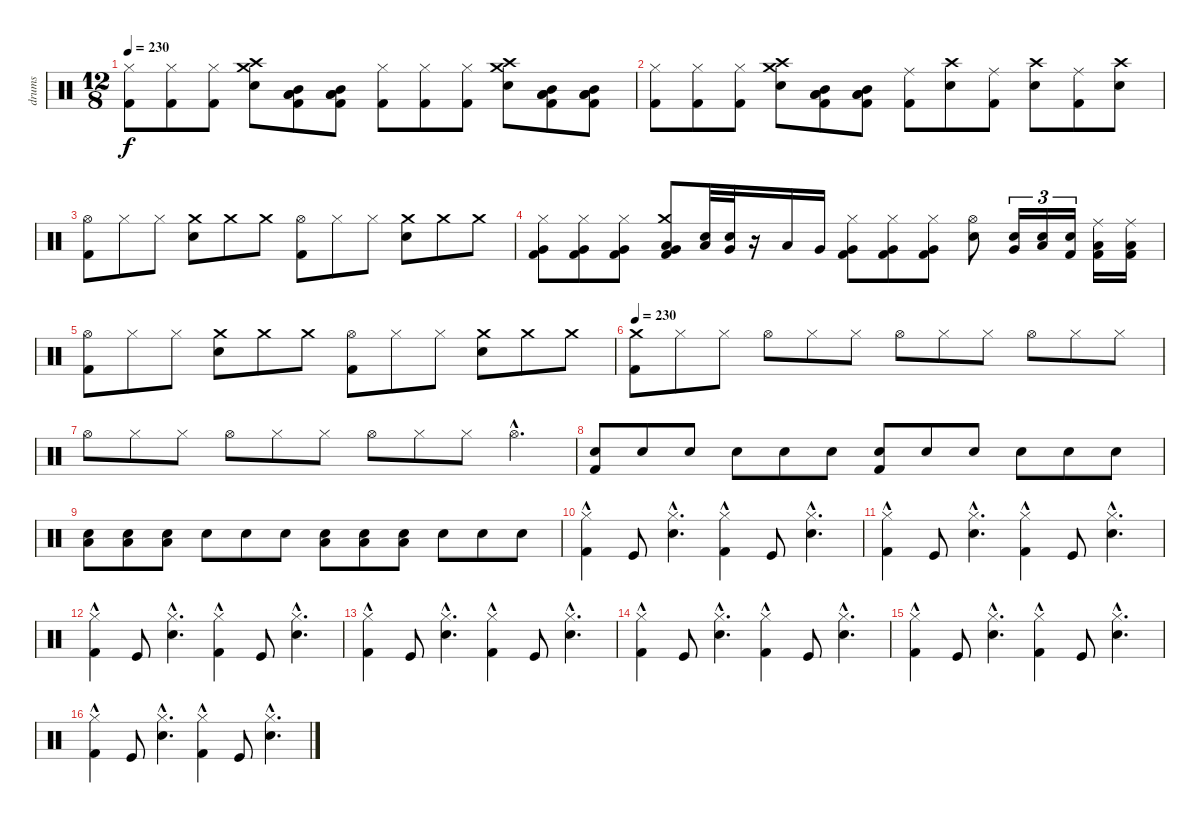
\track ("drums" "drums") {instrument percussion}
\staff {score}
\articulation defaults
\ts (12 8)
\tempo 230
\clef neutral
\ks c
("Hi-Hat (closed)" "Kick (hit) 2").8{dy f} ("Hi-Hat (closed)" "Kick (hit) 2").8 ("Hi-Hat (closed)" "Kick (hit) 2").8 ("Snare (hit) 2" "Crash high (hit)" "Crash medium (hit)").8 ("Kick (hit) 2" "Low Tom (hit)" "Low Floor Tom (hit)" "Mid Tom (hit)").8 ("Kick (hit) 2" "Mid Tom (hit)" "Low Floor Tom (hit)" "Low Tom (hit)").8 ("Hi-Hat (closed)" "Kick (hit) 2").8 ("Hi-Hat (closed)" "Kick (hit) 2").8 ("Hi-Hat (closed)" "Kick (hit) 2").8 ("Crash medium (hit)" "Crash high (hit)" "Snare (hit) 2").8 ("Kick (hit) 2" "Mid Tom (hit)" "Low Tom (hit)" "Low Floor Tom (hit)").8 ("Kick (hit) 2" "Mid Tom (hit)" "Low Tom (hit)" "Low Floor Tom (hit)").8 |
("Hi-Hat (closed)" "Kick (hit) 2").8 ("Hi-Hat (closed)" "Kick (hit) 2").8 ("Hi-Hat (closed)" "Kick (hit) 2").8 ("Snare (hit) 2" "Crash high (hit)" "Crash medium (hit)").8 ("Kick (hit) 2" "Low Floor Tom (hit)" "Mid Tom (hit)" "Low Tom (hit)").8 ("Kick (hit) 2" "Mid Tom (hit)" "Low Tom (hit)" "Low Floor Tom (hit)").8 ("Ride (middle)" "Kick (hit) 2").8 ("Crash high (hit)" "Snare (hit) 2").8 ("Ride (middle)" "Kick (hit) 2").8 ("Crash high (hit)" "Snare (hit) 2").8 ("Ride (middle)" "Kick (hit) 2").8 ("Crash high (hit)" "Snare (hit) 2").8 |
("Hi-Hat (open)" "Kick (hit) 2").8 "Hi-Hat (closed)".8 "Hi-Hat (closed)".8 ("Snare (hit) 2" "Crash medium (hit)").8 "Crash medium (hit)".8 "Crash medium (hit)".8 ("Hi-Hat (open)" "Kick (hit) 2").8 "Hi-Hat (closed)".8 "Hi-Hat (closed)".8 ("Snare (hit) 2" "Crash medium (hit)").8 "Crash medium (hit)".8 "Crash medium (hit)".8 |
("Hi-Hat (closed)" "Kick (hit) 2" "Very Low Tom (hit)").8 ("Hi-Hat (closed)" "Kick (hit) 2" "Very Low Tom (hit)").8 ("Hi-Hat (closed)" "Kick (hit) 2" "Very Low Tom (hit)").8 ("Crash medium (hit)" "Low Floor Tom (hit)" "Kick (hit) 2" "Very Low Tom (hit)").8 ("Snare (hit) 2" "Low Tom (hit)").32 ("Snare (hit) 2" "Very Low Tom (hit)").32 r.16 "Low Floor Tom (hit)".16 "Very Low Tom (hit)".16 ("Hi-Hat (closed)" "Very Low Tom (hit)" "Kick (hit) 2").8 ("Hi-Hat (closed)" "Very Low Tom (hit)" "Kick (hit) 2").8 ("Hi-Hat (closed)" "Very Low Tom (hit)" "Kick (hit) 2").8 ("Hi-Hat (open)" "Electric Snare (hit)").8 ("Very Low Tom (hit)" "Snare (hit) 2").16{tu (3 2)} ("Low Floor Tom (hit)" "Snare (hit) 2").16{tu (3 2)} ("Kick (hit) 2" "Snare (hit) 2").16{tu (3 2)} ("Kick (hit) 2" "Ride (middle)" "Low Floor Tom (hit)").16 ("Kick (hit) 2" "Ride (middle)" "Low Floor Tom (hit)").16 |
("Hi-Hat (open)" "Kick (hit) 2").8 "Hi-Hat (closed)".8 "Hi-Hat (closed)".8 ("Snare (hit) 2" "Crash medium (hit)").8 "Crash medium (hit)".8 "Crash medium (hit)".8 ("Hi-Hat (open)" "Kick (hit) 2").8 "Hi-Hat (closed)".8 "Hi-Hat (closed)".8 ("Snare (hit) 2" "Crash medium (hit)").8 "Crash medium (hit)".8 "Crash medium (hit)".8 |
\tempo 230
("Kick (hit) 2" "Crash medium (hit)").8 "Hi-Hat (closed)".8 "Hi-Hat (closed)".8 "Hi-Hat (open)".8 "Hi-Hat (closed)".8 "Hi-Hat (closed)".8 "Hi-Hat (open)".8 "Hi-Hat (closed)".8 "Hi-Hat (closed)".8 "Hi-Hat (open)".8 "Hi-Hat (closed)".8 "Hi-Hat (closed)".8 |
"Hi-Hat (open)".8 "Hi-Hat (closed)".8 "Hi-Hat (closed)".8 "Hi-Hat (open)".8 "Hi-Hat (closed)".8 "Hi-Hat (closed)".8 "Hi-Hat (open)".8 "Hi-Hat (closed)".8 "Hi-Hat (closed)".8 "Hi-Hat (open)"{hac}.4{d} |
("Kick (hit) 2" "Snare (hit) 2").8 "Snare (hit) 2".8 "Snare (hit) 2".8 "Snare (hit) 2".8 "Snare (hit) 2".8 "Snare (hit) 2".8 ("Kick (hit) 2" "Snare (hit) 2").8 "Snare (hit) 2".8 "Snare (hit) 2".8 "Snare (hit) 2".8 "Snare (hit) 2".8 "Snare (hit) 2".8 |
("Electric Snare (hit)" "Low Tom (hit)").8 ("Electric Snare (hit)" "Low Tom (hit)").8 ("Electric Snare (hit)" "Low Tom (hit)").8 "Electric Snare (hit)".8 "Electric Snare (hit)".8 "Electric Snare (hit)".8 ("Electric Snare (hit)" "Low Tom (hit)").8 ("Low Tom (hit)" "Electric Snare (hit)").8 ("Low Tom (hit)" "Electric Snare (hit)").8 "Snare (hit) 2".8 "Snare (hit) 2".8 "Snare (hit) 2".8 |
("Hi-Hat (closed)"{hac} "Kick (hit) 2").4 "Kick (hit)".8 ("Hi-Hat (closed)"{hac} "Snare (hit) 2"{hac}).4{d} ("Hi-Hat (closed)"{hac} "Kick (hit) 2").4 "Kick (hit)".8 ("Hi-Hat (closed)"{hac} "Snare (hit) 2"{hac}).4{d} |
("Kick (hit) 2" "Hi-Hat (closed)"{hac}).4 "Kick (hit)".8 ("Hi-Hat (closed)"{hac} "Snare (hit) 2"{hac}).4{d} ("Kick (hit) 2" "Hi-Hat (closed)"{hac}).4 "Kick (hit)".8 ("Hi-Hat (closed)"{hac} "Snare (hit) 2"{hac}).4{d} |
("Kick (hit) 2" "Hi-Hat (closed)"{hac}).4 "Kick (hit)".8 ("Hi-Hat (closed)"{hac} "Snare (hit) 2"{hac}).4{d} ("Kick (hit) 2" "Hi-Hat (closed)"{hac}).4 "Kick (hit)".8 ("Hi-Hat (closed)"{hac} "Snare (hit) 2"{hac}).4{d} |
("Kick (hit) 2" "Hi-Hat (closed)"{hac}).4 "Kick (hit)".8 ("Hi-Hat (closed)"{hac} "Snare (hit) 2"{hac}).4{d} ("Kick (hit) 2" "Hi-Hat (closed)"{hac}).4 "Kick (hit)".8 ("Hi-Hat (closed)"{hac} "Snare (hit) 2"{hac}).4{d} |
("Kick (hit) 2" "Hi-Hat (closed)"{hac}).4 "Kick (hit)".8 ("Hi-Hat (closed)"{hac} "Snare (hit) 2"{hac}).4{d} ("Hi-Hat (closed)"{hac} "Kick (hit) 2").4 "Kick (hit)".8 ("Hi-Hat (closed)"{hac} "Snare (hit) 2"{hac}).4{d} |
("Hi-Hat (closed)"{hac} "Kick (hit) 2").4 "Kick (hit)".8 ("Hi-Hat (closed)"{hac} "Snare (hit) 2"{hac}).4{d} ("Hi-Hat (closed)"{hac} "Kick (hit) 2").4 "Kick (hit)".8 ("Hi-Hat (closed)"{hac} "Snare (hit) 2"{hac}).4{d} |
("Hi-Hat (closed)"{hac} "Kick (hit) 2").4 "Kick (hit)".8 ("Hi-Hat (closed)"{hac} "Snare (hit) 2"{hac}).4{d} ("Hi-Hat (closed)"{hac} "Kick (hit) 2").4 "Kick (hit)".8 ("Hi-Hat (closed)"{hac} "Snare (hit) 2"{hac}).4{d}
